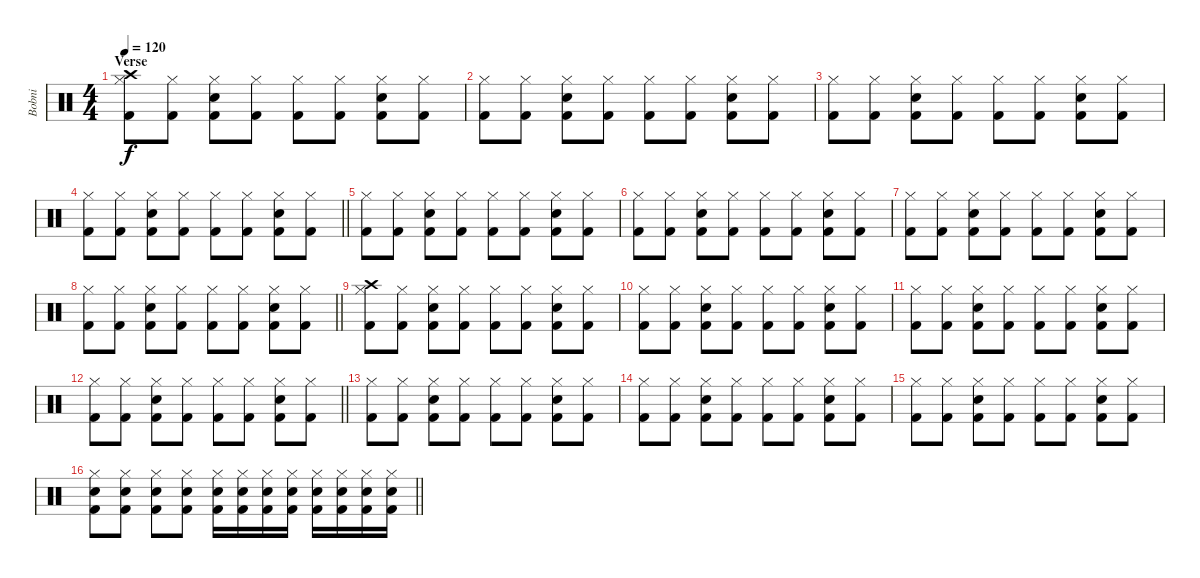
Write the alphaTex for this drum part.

\track ("Bobni" "Bobni") {instrument percussion}
\staff {score}
\articulation defaults
\ts (4 4)
\section ("" "Verse")
\tempo 120
\clef neutral
\ks c
("Crash high (hit)" "Hi-Hat (closed)" "Kick (hit) 2").8{dy f} ("Hi-Hat (closed)" "Kick (hit) 2").8 ("Hi-Hat (closed)" "Electric Snare (hit)" "Kick (hit) 2").8 ("Hi-Hat (closed)" "Kick (hit) 2").8 ("Hi-Hat (closed)" "Kick (hit) 2").8 ("Hi-Hat (closed)" "Kick (hit) 2").8 ("Hi-Hat (closed)" "Electric Snare (hit)" "Kick (hit) 2").8 ("Hi-Hat (closed)" "Kick (hit) 2").8 |
("Hi-Hat (closed)" "Kick (hit) 2").8 ("Hi-Hat (closed)" "Kick (hit) 2").8 ("Hi-Hat (closed)" "Electric Snare (hit)" "Kick (hit) 2").8 ("Hi-Hat (closed)" "Kick (hit) 2").8 ("Hi-Hat (closed)" "Kick (hit) 2").8 ("Hi-Hat (closed)" "Kick (hit) 2").8 ("Hi-Hat (closed)" "Electric Snare (hit)" "Kick (hit) 2").8 ("Hi-Hat (closed)" "Kick (hit) 2").8 |
("Hi-Hat (closed)" "Kick (hit) 2").8 ("Hi-Hat (closed)" "Kick (hit) 2").8 ("Hi-Hat (closed)" "Electric Snare (hit)" "Kick (hit) 2").8 ("Hi-Hat (closed)" "Kick (hit) 2").8 ("Hi-Hat (closed)" "Kick (hit) 2").8 ("Hi-Hat (closed)" "Kick (hit) 2").8 ("Hi-Hat (closed)" "Electric Snare (hit)" "Kick (hit) 2").8 ("Hi-Hat (closed)" "Kick (hit) 2").8 |
\barLineRight lightlight
("Hi-Hat (closed)" "Kick (hit) 2").8 ("Hi-Hat (closed)" "Kick (hit) 2").8 ("Hi-Hat (closed)" "Electric Snare (hit)" "Kick (hit) 2").8 ("Hi-Hat (closed)" "Kick (hit) 2").8 ("Hi-Hat (closed)" "Kick (hit) 2").8 ("Hi-Hat (closed)" "Kick (hit) 2").8 ("Hi-Hat (closed)" "Electric Snare (hit)" "Kick (hit) 2").8 ("Hi-Hat (closed)" "Kick (hit) 2").8 |
("Hi-Hat (closed)" "Kick (hit) 2").8 ("Hi-Hat (closed)" "Kick (hit) 2").8 ("Hi-Hat (closed)" "Electric Snare (hit)" "Kick (hit) 2").8 ("Hi-Hat (closed)" "Kick (hit) 2").8 ("Hi-Hat (closed)" "Kick (hit) 2").8 ("Hi-Hat (closed)" "Kick (hit) 2").8 ("Hi-Hat (closed)" "Electric Snare (hit)" "Kick (hit) 2").8 ("Hi-Hat (closed)" "Kick (hit) 2").8 |
("Hi-Hat (closed)" "Kick (hit) 2").8 ("Hi-Hat (closed)" "Kick (hit) 2").8 ("Hi-Hat (closed)" "Electric Snare (hit)" "Kick (hit) 2").8 ("Hi-Hat (closed)" "Kick (hit) 2").8 ("Hi-Hat (closed)" "Kick (hit) 2").8 ("Hi-Hat (closed)" "Kick (hit) 2").8 ("Hi-Hat (closed)" "Electric Snare (hit)" "Kick (hit) 2").8 ("Hi-Hat (closed)" "Kick (hit) 2").8 |
("Hi-Hat (closed)" "Kick (hit) 2").8 ("Hi-Hat (closed)" "Kick (hit) 2").8 ("Hi-Hat (closed)" "Electric Snare (hit)" "Kick (hit) 2").8 ("Hi-Hat (closed)" "Kick (hit) 2").8 ("Hi-Hat (closed)" "Kick (hit) 2").8 ("Hi-Hat (closed)" "Kick (hit) 2").8 ("Hi-Hat (closed)" "Electric Snare (hit)" "Kick (hit) 2").8 ("Hi-Hat (closed)" "Kick (hit) 2").8 |
\barLineRight lightlight
("Hi-Hat (closed)" "Kick (hit) 2").8 ("Hi-Hat (closed)" "Kick (hit) 2").8 ("Hi-Hat (closed)" "Electric Snare (hit)" "Kick (hit) 2").8 ("Hi-Hat (closed)" "Kick (hit) 2").8 ("Hi-Hat (closed)" "Kick (hit) 2").8 ("Hi-Hat (closed)" "Kick (hit) 2").8 ("Hi-Hat (closed)" "Electric Snare (hit)" "Kick (hit) 2").8 ("Hi-Hat (closed)" "Kick (hit) 2").8 |
("Crash high (hit)" "Hi-Hat (closed)" "Kick (hit) 2").8 ("Hi-Hat (closed)" "Kick (hit) 2").8 ("Hi-Hat (closed)" "Electric Snare (hit)" "Kick (hit) 2").8 ("Hi-Hat (closed)" "Kick (hit) 2").8 ("Hi-Hat (closed)" "Kick (hit) 2").8 ("Hi-Hat (closed)" "Kick (hit) 2").8 ("Hi-Hat (closed)" "Electric Snare (hit)" "Kick (hit) 2").8 ("Hi-Hat (closed)" "Kick (hit) 2").8 |
("Hi-Hat (closed)" "Kick (hit) 2").8 ("Hi-Hat (closed)" "Kick (hit) 2").8 ("Hi-Hat (closed)" "Electric Snare (hit)" "Kick (hit) 2").8 ("Hi-Hat (closed)" "Kick (hit) 2").8 ("Hi-Hat (closed)" "Kick (hit) 2").8 ("Hi-Hat (closed)" "Kick (hit) 2").8 ("Hi-Hat (closed)" "Electric Snare (hit)" "Kick (hit) 2").8 ("Hi-Hat (closed)" "Kick (hit) 2").8 |
("Hi-Hat (closed)" "Kick (hit) 2").8 ("Hi-Hat (closed)" "Kick (hit) 2").8 ("Hi-Hat (closed)" "Electric Snare (hit)" "Kick (hit) 2").8 ("Hi-Hat (closed)" "Kick (hit) 2").8 ("Hi-Hat (closed)" "Kick (hit) 2").8 ("Hi-Hat (closed)" "Kick (hit) 2").8 ("Hi-Hat (closed)" "Electric Snare (hit)" "Kick (hit) 2").8 ("Hi-Hat (closed)" "Kick (hit) 2").8 |
\barLineRight lightlight
("Hi-Hat (closed)" "Kick (hit) 2").8 ("Hi-Hat (closed)" "Kick (hit) 2").8 ("Hi-Hat (closed)" "Electric Snare (hit)" "Kick (hit) 2").8 ("Hi-Hat (closed)" "Kick (hit) 2").8 ("Hi-Hat (closed)" "Kick (hit) 2").8 ("Hi-Hat (closed)" "Kick (hit) 2").8 ("Hi-Hat (closed)" "Electric Snare (hit)" "Kick (hit) 2").8 ("Hi-Hat (closed)" "Kick (hit) 2").8 |
("Hi-Hat (closed)" "Kick (hit) 2").8 ("Hi-Hat (closed)" "Kick (hit) 2").8 ("Hi-Hat (closed)" "Electric Snare (hit)" "Kick (hit) 2").8 ("Hi-Hat (closed)" "Kick (hit) 2").8 ("Hi-Hat (closed)" "Kick (hit) 2").8 ("Hi-Hat (closed)" "Kick (hit) 2").8 ("Hi-Hat (closed)" "Electric Snare (hit)" "Kick (hit) 2").8 ("Hi-Hat (closed)" "Kick (hit) 2").8 |
("Hi-Hat (closed)" "Kick (hit) 2").8 ("Hi-Hat (closed)" "Kick (hit) 2").8 ("Hi-Hat (closed)" "Electric Snare (hit)" "Kick (hit) 2").8 ("Hi-Hat (closed)" "Kick (hit) 2").8 ("Hi-Hat (closed)" "Kick (hit) 2").8 ("Hi-Hat (closed)" "Kick (hit) 2").8 ("Hi-Hat (closed)" "Electric Snare (hit)" "Kick (hit) 2").8 ("Hi-Hat (closed)" "Kick (hit) 2").8 |
("Hi-Hat (closed)" "Kick (hit) 2").8 ("Hi-Hat (closed)" "Kick (hit) 2").8 ("Hi-Hat (closed)" "Electric Snare (hit)" "Kick (hit) 2").8 ("Hi-Hat (closed)" "Kick (hit) 2").8 ("Hi-Hat (closed)" "Kick (hit) 2").8 ("Hi-Hat (closed)" "Kick (hit) 2").8 ("Hi-Hat (closed)" "Electric Snare (hit)" "Kick (hit) 2").8 ("Hi-Hat (closed)" "Kick (hit) 2").8 |
\barLineRight lightlight
("Hi-Hat (closed)" "Electric Snare (hit)" "Kick (hit) 2").8 ("Hi-Hat (closed)" "Electric Snare (hit)" "Kick (hit) 2").8 ("Hi-Hat (closed)" "Electric Snare (hit)" "Kick (hit) 2").8 ("Hi-Hat (closed)" "Electric Snare (hit)" "Kick (hit) 2").8 ("Hi-Hat (closed)" "Electric Snare (hit)" "Kick (hit) 2").16 ("Hi-Hat (closed)" "Electric Snare (hit)" "Kick (hit) 2").16 ("Hi-Hat (closed)" "Electric Snare (hit)" "Kick (hit) 2").16 ("Hi-Hat (closed)" "Electric Snare (hit)" "Kick (hit) 2").16 ("Hi-Hat (closed)" "Electric Snare (hit)" "Kick (hit) 2").16 ("Hi-Hat (closed)" "Electric Snare (hit)" "Kick (hit) 2").16 ("Hi-Hat (closed)" "Electric Snare (hit)" "Kick (hit) 2").16 ("Hi-Hat (closed)" "Electric Snare (hit)" "Kick (hit) 2").16
